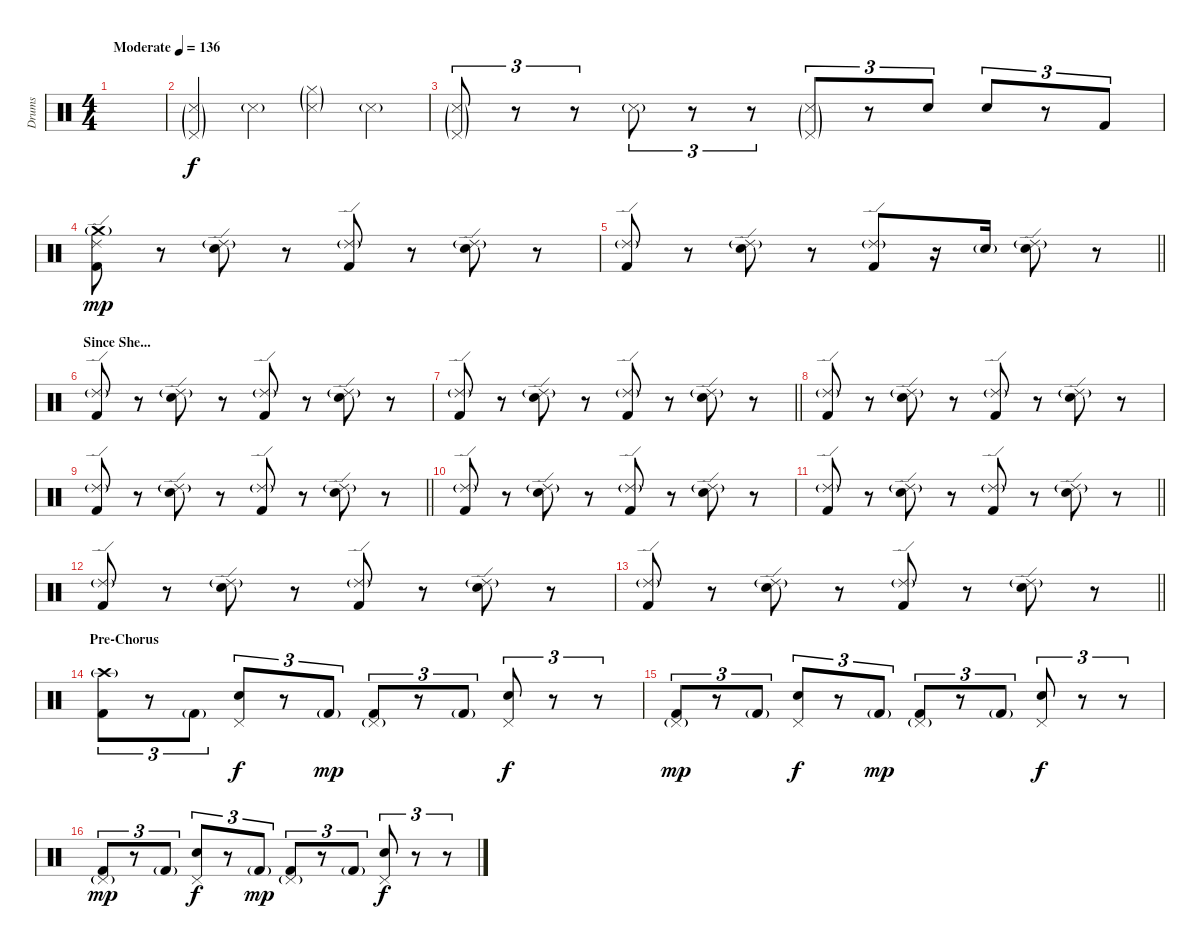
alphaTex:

\track ("Drums" "Drums") {instrument percussion}
\staff {score}
\articulation defaults
\ts (4 4)
\tempo (136 "Moderate")
\clef neutral
\ks c
|
("Pedal Hi-Hat (hit)"{g} "Snare (side stick) 3"{g}).4 "Snare (side stick) 3"{g}.4 ("Hi-Hat (closed)"{g} "Snare (side stick) 3"{g}).4 "Snare (side stick) 3"{g}.4 |
("Pedal Hi-Hat (hit)"{g} "Snare (side stick) 3"{g}).8{tu (3 2)} r.8{tu (3 2)} r.8{tu (3 2)} "Snare (side stick) 3"{g}.8{tu (3 2)} r.8{tu (3 2)} r.8{tu (3 2)} ("Pedal Hi-Hat (hit)"{g} "Snare (side stick) 3"{g}).8{tu (3 2)} r.8{tu (3 2)} "Snare (hit) 2".8{tu (3 2) dy f} "Snare (hit) 2".8{tu (3 2)} r.8{tu (3 2)} "Kick (hit) 2".8{tu (3 2)} |
("Ride (edge) 2" "Crash medium (hit)"{g} "Kick (hit) 2").8{dy mp} r.8 ("Ride (edge) 2"{g} "Snare (hit) 2").8 r.8 ("Ride (edge) 2"{g} "Kick (hit) 2").8 r.8 ("Ride (edge) 2"{g} "Snare (hit) 2").8 r.8 |
\barLineRight lightlight
("Ride (edge) 2"{g} "Kick (hit) 2").8 r.8 ("Ride (edge) 2"{g} "Snare (hit) 2").8 r.8 ("Ride (edge) 2"{g} "Kick (hit) 2").8 r.16 "Snare (hit) 2"{g}.16 ("Ride (edge) 2"{g} "Snare (hit) 2").8 r.8 |
\section ("" "Since She...")
("Ride (edge) 2"{g} "Kick (hit) 2").8 r.8 ("Ride (edge) 2"{g} "Snare (hit) 2").8 r.8 ("Ride (edge) 2"{g} "Kick (hit) 2").8 r.8 ("Ride (edge) 2"{g} "Snare (hit) 2").8 r.8 |
\barLineRight lightlight
("Ride (edge) 2"{g} "Kick (hit) 2").8 r.8 ("Ride (edge) 2"{g} "Snare (hit) 2").8 r.8 ("Ride (edge) 2"{g} "Kick (hit) 2").8 r.8 ("Ride (edge) 2"{g} "Snare (hit) 2").8 r.8 |
("Ride (edge) 2"{g} "Kick (hit) 2").8 r.8 ("Ride (edge) 2"{g} "Snare (hit) 2").8 r.8 ("Ride (edge) 2"{g} "Kick (hit) 2").8 r.8 ("Ride (edge) 2"{g} "Snare (hit) 2").8 r.8 |
\barLineRight lightlight
("Ride (edge) 2"{g} "Kick (hit) 2").8 r.8 ("Ride (edge) 2"{g} "Snare (hit) 2").8 r.8 ("Ride (edge) 2"{g} "Kick (hit) 2").8 r.8 ("Ride (edge) 2"{g} "Snare (hit) 2").8 r.8 |
("Ride (edge) 2"{g} "Kick (hit) 2").8 r.8 ("Ride (edge) 2"{g} "Snare (hit) 2").8 r.8 ("Ride (edge) 2"{g} "Kick (hit) 2").8 r.8 ("Ride (edge) 2"{g} "Snare (hit) 2").8 r.8 |
\barLineRight lightlight
("Ride (edge) 2"{g} "Kick (hit) 2").8 r.8 ("Ride (edge) 2"{g} "Snare (hit) 2").8 r.8 ("Ride (edge) 2"{g} "Kick (hit) 2").8 r.8 ("Ride (edge) 2"{g} "Snare (hit) 2").8 r.8 |
("Ride (edge) 2"{g} "Kick (hit) 2").8 r.8 ("Ride (edge) 2"{g} "Snare (hit) 2").8 r.8 ("Ride (edge) 2"{g} "Kick (hit) 2").8 r.8 ("Ride (edge) 2"{g} "Snare (hit) 2").8 r.8 |
\barLineRight lightlight
("Ride (edge) 2"{g} "Kick (hit) 2").8 r.8 ("Ride (edge) 2"{g} "Snare (hit) 2").8 r.8 ("Ride (edge) 2"{g} "Kick (hit) 2").8 r.8 ("Ride (edge) 2"{g} "Snare (hit) 2").8 r.8 |
\section ("" "Pre-Chorus")
("Crash high (hit)"{g} "Kick (hit) 2").8{tu (3 2)} r.8{tu (3 2)} "Kick (hit) 2"{g}.8{tu (3 2)} ("Pedal Hi-Hat (hit)" "Snare (hit) 2").8{tu (3 2) dy f} r.8{tu (3 2)} "Kick (hit) 2"{g}.8{tu (3 2) dy mp} ("Pedal Hi-Hat (hit)"{g} "Kick (hit) 2").8{tu (3 2)} r.8{tu (3 2)} "Kick (hit) 2"{g}.8{tu (3 2)} ("Pedal Hi-Hat (hit)" "Snare (hit) 2").8{tu (3 2) dy f} r.8{tu (3 2)} r.8{tu (3 2)} |
("Pedal Hi-Hat (hit)"{g} "Kick (hit) 2").8{tu (3 2) dy mp} r.8{tu (3 2)} "Kick (hit) 2"{g}.8{tu (3 2)} ("Pedal Hi-Hat (hit)" "Snare (hit) 2").8{tu (3 2) dy f} r.8{tu (3 2)} "Kick (hit) 2"{g}.8{tu (3 2) dy mp} ("Pedal Hi-Hat (hit)"{g} "Kick (hit) 2").8{tu (3 2)} r.8{tu (3 2)} "Kick (hit) 2"{g}.8{tu (3 2)} ("Pedal Hi-Hat (hit)" "Snare (hit) 2").8{tu (3 2) dy f} r.8{tu (3 2)} r.8{tu (3 2)} |
("Pedal Hi-Hat (hit)"{g} "Kick (hit) 2").8{tu (3 2) dy mp} r.8{tu (3 2)} "Kick (hit) 2"{g}.8{tu (3 2)} ("Pedal Hi-Hat (hit)" "Snare (hit) 2").8{tu (3 2) dy f} r.8{tu (3 2)} "Kick (hit) 2"{g}.8{tu (3 2) dy mp} ("Pedal Hi-Hat (hit)"{g} "Kick (hit) 2").8{tu (3 2)} r.8{tu (3 2)} "Kick (hit) 2"{g}.8{tu (3 2)} ("Pedal Hi-Hat (hit)" "Snare (hit) 2").8{tu (3 2) dy f} r.8{tu (3 2)} r.8{tu (3 2)}
